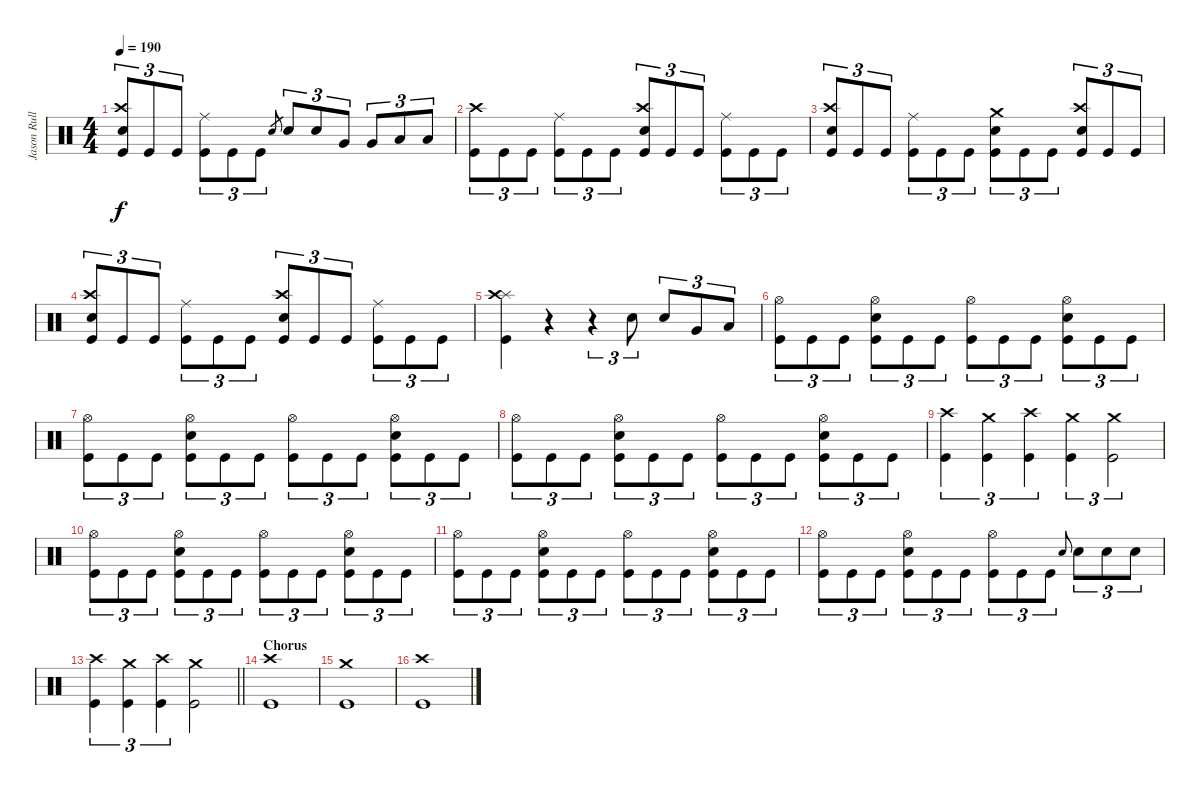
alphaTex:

\track ("Jason Rullo - Drums and Percussion" "Jason Rull") {instrument percussion}
\staff {score}
\articulation defaults
\ts (4 4)
\tempo 190
\clef neutral
\ks c
("Kick (hit)" "Crash high (hit)" "Snare (hit) 2").8{tu (3 2) dy f} "Kick (hit)".8{tu (3 2)} "Kick (hit)".8{tu (3 2)} ("Kick (hit)" "Ride (middle)").8{tu (3 2)} "Kick (hit)".8{tu (3 2)} "Kick (hit)".8{tu (3 2)} "Snare (hit) 2".8{gr} "Snare (hit) 2".8{tu (3 2)} "Snare (hit) 2".8{tu (3 2)} "Very Low Tom (hit)".8{tu (3 2)} "Very Low Tom (hit)".8{tu (3 2)} "Low Floor Tom (hit)".8{tu (3 2)} "Low Floor Tom (hit)".8{tu (3 2)} |
("Kick (hit)" "Crash high (hit)").8{tu (3 2)} "Kick (hit)".8{tu (3 2)} "Kick (hit)".8{tu (3 2)} ("Kick (hit)" "Ride (middle)").8{tu (3 2)} "Kick (hit)".8{tu (3 2)} "Kick (hit)".8{tu (3 2)} ("Snare (hit) 2" "Kick (hit)" "Crash high (hit)").8{tu (3 2)} "Kick (hit)".8{tu (3 2)} "Kick (hit)".8{tu (3 2)} ("Kick (hit)" "Ride (middle)").8{tu (3 2)} "Kick (hit)".8{tu (3 2)} "Kick (hit)".8{tu (3 2)} |
("Snare (hit) 2" "Kick (hit)" "Crash high (hit)").8{tu (3 2)} "Kick (hit)".8{tu (3 2)} "Kick (hit)".8{tu (3 2)} ("Kick (hit)" "Ride (middle)").8{tu (3 2)} "Kick (hit)".8{tu (3 2)} "Kick (hit)".8{tu (3 2)} ("Kick (hit)" "Snare (hit) 2" "Crash medium (hit)").8{tu (3 2)} "Kick (hit)".8{tu (3 2)} "Kick (hit)".8{tu (3 2)} ("Kick (hit)" "Snare (hit) 2" "Crash high (hit)").8{tu (3 2)} "Kick (hit)".8{tu (3 2)} "Kick (hit)".8{tu (3 2)} |
("Kick (hit)" "Crash high (hit)" "Snare (hit) 2").8{tu (3 2)} "Kick (hit)".8{tu (3 2)} "Kick (hit)".8{tu (3 2)} ("Kick (hit)" "Ride (middle)").8{tu (3 2)} "Kick (hit)".8{tu (3 2)} "Kick (hit)".8{tu (3 2)} ("Snare (hit) 2" "Kick (hit)" "Crash high (hit)").8{tu (3 2)} "Kick (hit)".8{tu (3 2)} "Kick (hit)".8{tu (3 2)} ("Kick (hit)" "Ride (middle)").8{tu (3 2)} "Kick (hit)".8{tu (3 2)} "Kick (hit)".8{tu (3 2)} |
("Kick (hit)" "Splash (hit)" "Crash high (hit)").4 r.4 r.4{tu (3 2)} "Snare (hit) 2".8{tu (3 2)} "Snare (hit) 2".8{tu (3 2)} "Very Low Tom (hit)".8{tu (3 2)} "Low Floor Tom (hit)".8{tu (3 2)} |
("Kick (hit)" "Hi-Hat (open)").8{tu (3 2)} "Kick (hit)".8{tu (3 2)} "Kick (hit)".8{tu (3 2)} ("Kick (hit)" "Snare (hit) 2" "Hi-Hat (open)").8{tu (3 2)} "Kick (hit)".8{tu (3 2)} "Kick (hit)".8{tu (3 2)} ("Hi-Hat (open)" "Kick (hit)").8{tu (3 2)} "Kick (hit)".8{tu (3 2)} "Kick (hit)".8{tu (3 2)} ("Kick (hit)" "Snare (hit) 2" "Hi-Hat (open)").8{tu (3 2)} "Kick (hit)".8{tu (3 2)} "Kick (hit)".8{tu (3 2)} |
("Kick (hit)" "Hi-Hat (open)").8{tu (3 2)} "Kick (hit)".8{tu (3 2)} "Kick (hit)".8{tu (3 2)} ("Kick (hit)" "Snare (hit) 2" "Hi-Hat (open)").8{tu (3 2)} "Kick (hit)".8{tu (3 2)} "Kick (hit)".8{tu (3 2)} ("Hi-Hat (open)" "Kick (hit)").8{tu (3 2)} "Kick (hit)".8{tu (3 2)} "Kick (hit)".8{tu (3 2)} ("Kick (hit)" "Snare (hit) 2" "Hi-Hat (open)").8{tu (3 2)} "Kick (hit)".8{tu (3 2)} "Kick (hit)".8{tu (3 2)} |
("Kick (hit)" "Hi-Hat (open)").8{tu (3 2)} "Kick (hit)".8{tu (3 2)} "Kick (hit)".8{tu (3 2)} ("Kick (hit)" "Snare (hit) 2" "Hi-Hat (open)").8{tu (3 2)} "Kick (hit)".8{tu (3 2)} "Kick (hit)".8{tu (3 2)} ("Hi-Hat (open)" "Kick (hit)").8{tu (3 2)} "Kick (hit)".8{tu (3 2)} "Kick (hit)".8{tu (3 2)} ("Kick (hit)" "Snare (hit) 2" "Hi-Hat (open)").8{tu (3 2)} "Kick (hit)".8{tu (3 2)} "Kick (hit)".8{tu (3 2)} |
("Kick (hit)" "Crash high (hit)").4{tu (3 2)} ("Kick (hit)" "Crash medium (hit)").4{tu (3 2)} ("Kick (hit)" "Crash high (hit)").4{tu (3 2)} ("Kick (hit)" "Crash medium (hit)").4{tu (3 2)} ("Kick (hit)" "Crash medium (hit)").2{tu (3 2)} |
("Kick (hit)" "Hi-Hat (open)").8{tu (3 2)} "Kick (hit)".8{tu (3 2)} "Kick (hit)".8{tu (3 2)} ("Kick (hit)" "Snare (hit) 2" "Hi-Hat (open)").8{tu (3 2)} "Kick (hit)".8{tu (3 2)} "Kick (hit)".8{tu (3 2)} ("Hi-Hat (open)" "Kick (hit)").8{tu (3 2)} "Kick (hit)".8{tu (3 2)} "Kick (hit)".8{tu (3 2)} ("Kick (hit)" "Snare (hit) 2" "Hi-Hat (open)").8{tu (3 2)} "Kick (hit)".8{tu (3 2)} "Kick (hit)".8{tu (3 2)} |
("Kick (hit)" "Hi-Hat (open)").8{tu (3 2)} "Kick (hit)".8{tu (3 2)} "Kick (hit)".8{tu (3 2)} ("Kick (hit)" "Snare (hit) 2" "Hi-Hat (open)").8{tu (3 2)} "Kick (hit)".8{tu (3 2)} "Kick (hit)".8{tu (3 2)} ("Hi-Hat (open)" "Kick (hit)").8{tu (3 2)} "Kick (hit)".8{tu (3 2)} "Kick (hit)".8{tu (3 2)} ("Kick (hit)" "Snare (hit) 2" "Hi-Hat (open)").8{tu (3 2)} "Kick (hit)".8{tu (3 2)} "Kick (hit)".8{tu (3 2)} |
("Kick (hit)" "Hi-Hat (open)").8{tu (3 2)} "Kick (hit)".8{tu (3 2)} "Kick (hit)".8{tu (3 2)} ("Kick (hit)" "Snare (hit) 2" "Hi-Hat (open)").8{tu (3 2)} "Kick (hit)".8{tu (3 2)} "Kick (hit)".8{tu (3 2)} ("Hi-Hat (open)" "Kick (hit)").8{tu (3 2)} "Kick (hit)".8{tu (3 2)} "Kick (hit)".8{tu (3 2)} "Snare (hit) 2".8{gr onbeat} "Snare (hit) 2".8{tu (3 2)} "Snare (hit) 2".8{tu (3 2)} "Snare (hit) 2".8{tu (3 2)} |
\barLineRight lightlight
("Kick (hit)" "Crash high (hit)").4{tu (3 2)} ("Kick (hit)" "Crash medium (hit)").4{tu (3 2)} ("Kick (hit)" "Crash high (hit)").4{tu (3 2)} ("Kick (hit)" "Crash medium (hit)").2 |
\section ("" "Chorus")
("Kick (hit)" "Crash high (hit)").1 |
("Kick (hit)" "Crash medium (hit)").1 |
("Kick (hit)" "Crash high (hit)").1
